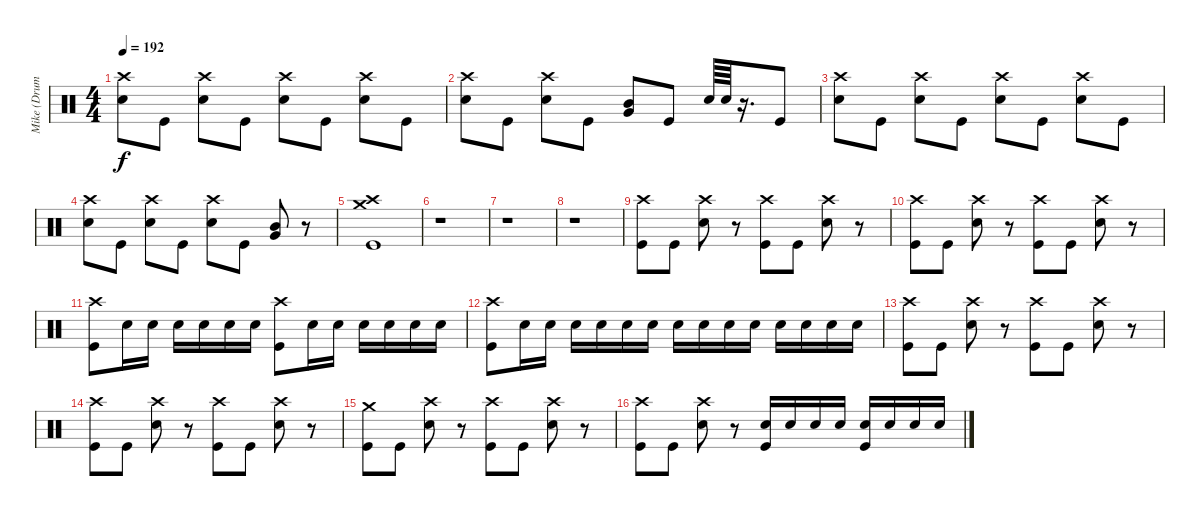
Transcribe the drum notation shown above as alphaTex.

\track ("Mike (Drums)" "Mike (Drum") {instrument percussion}
\staff {score}
\articulation defaults
\ts (4 4)
\tempo 192
\clef neutral
\ks c
("Crash high (hit)" "Snare (hit) 2").8{dy f} "Kick (hit)".8 ("Crash high (hit)" "Snare (hit) 2").8 "Kick (hit)".8 ("Crash high (hit)" "Snare (hit) 2").8 "Kick (hit)".8 ("Crash high (hit)" "Snare (hit) 2").8 "Kick (hit)".8 |
("Crash high (hit)" "Snare (hit) 2").8 "Kick (hit)".8 ("Crash high (hit)" "Snare (hit) 2").8 "Kick (hit)".8 ("Mid Tom (hit)" "Very Low Tom (hit)").8 "Kick (hit)".8 "Snare (hit) 2".64 "Snare (hit) 2".64 r.16{d} "Kick (hit)".8 |
("Crash high (hit)" "Snare (hit) 2").8 "Kick (hit)".8 ("Crash high (hit)" "Snare (hit) 2").8 "Kick (hit)".8 ("Crash high (hit)" "Snare (hit) 2").8 "Kick (hit)".8 ("Crash high (hit)" "Snare (hit) 2").8 "Kick (hit)".8 |
("Crash high (hit)" "Snare (hit) 2").8 "Kick (hit)".8 ("Crash high (hit)" "Snare (hit) 2").8 "Kick (hit)".8 ("Crash high (hit)" "Snare (hit) 2").8 "Kick (hit)".8 ("Mid Tom (hit)" "Very Low Tom (hit)").8 r.8 |
("Crash high (hit)" "Crash medium (hit)" "Kick (hit)").1 |
r.1 |
r.1 |
r.1 |
("Crash high (hit)" "Kick (hit)").8 "Kick (hit)".8 ("Crash high (hit)" "Snare (hit) 2").8 r.8 ("Crash high (hit)" "Kick (hit)").8 "Kick (hit)".8 ("Crash high (hit)" "Snare (hit) 2").8 r.8 |
("Crash high (hit)" "Kick (hit)").8 "Kick (hit)".8 ("Crash high (hit)" "Snare (hit) 2").8 r.8 ("Crash high (hit)" "Kick (hit)").8 "Kick (hit)".8 ("Crash high (hit)" "Snare (hit) 2").8 r.8 |
("Crash high (hit)" "Kick (hit)").8 "Snare (hit) 2".16 "Snare (hit) 2".16 "Snare (hit) 2".16 "Snare (hit) 2".16 "Snare (hit) 2".16 "Snare (hit) 2".16 ("Crash high (hit)" "Kick (hit)").8 "Snare (hit) 2".16 "Snare (hit) 2".16 "Snare (hit) 2".16 "Snare (hit) 2".16 "Snare (hit) 2".16 "Snare (hit) 2".16 |
("Crash high (hit)" "Kick (hit)").8 "Snare (hit) 2".16 "Snare (hit) 2".16 "Snare (hit) 2".16 "Snare (hit) 2".16 "Snare (hit) 2".16 "Snare (hit) 2".16 "Snare (hit) 2".16 "Snare (hit) 2".16 "Snare (hit) 2".16 "Snare (hit) 2".16 "Snare (hit) 2".16 "Snare (hit) 2".16 "Snare (hit) 2".16 "Snare (hit) 2".16 |
("Crash high (hit)" "Kick (hit)").8 "Kick (hit)".8 ("Crash high (hit)" "Snare (hit) 2").8 r.8 ("Crash high (hit)" "Kick (hit)").8 "Kick (hit)".8 ("Crash high (hit)" "Snare (hit) 2").8 r.8 |
("Crash high (hit)" "Kick (hit)").8 "Kick (hit)".8 ("Crash high (hit)" "Snare (hit) 2").8 r.8 ("Crash high (hit)" "Kick (hit)").8 "Kick (hit)".8 ("Crash high (hit)" "Snare (hit) 2").8 r.8 |
("Crash medium (hit)" "Kick (hit)").8 "Kick (hit)".8 ("Crash high (hit)" "Snare (hit) 2").8 r.8 ("Crash high (hit)" "Kick (hit)").8 "Kick (hit)".8 ("Crash high (hit)" "Snare (hit) 2").8 r.8 |
("Crash high (hit)" "Kick (hit)").8 "Kick (hit)".8 ("Crash high (hit)" "Snare (hit) 2").8 r.8 ("Snare (hit) 2" "Kick (hit)").16 "Snare (hit) 2".16 "Snare (hit) 2".16 "Snare (hit) 2".16 ("Snare (hit) 2" "Kick (hit)").16 "Snare (hit) 2".16 "Snare (hit) 2".16 "Snare (hit) 2".16
